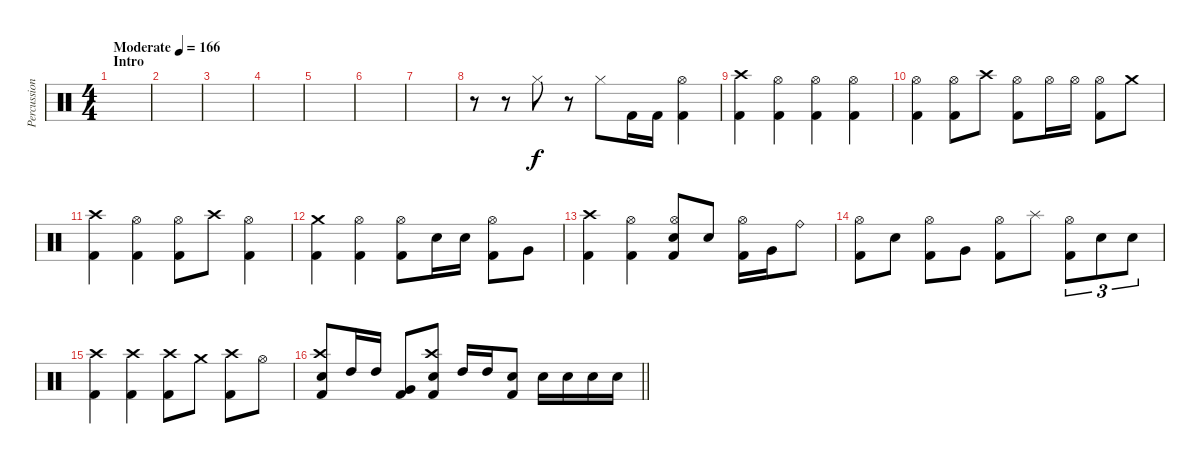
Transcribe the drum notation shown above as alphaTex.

\track ("Percussion" "Percussion") {instrument percussion}
\staff {score}
\articulation defaults
\ts (4 4)
\section ("" "Intro")
\tempo (166 "Moderate")
\clef neutral
\ks c
|
|
|
|
|
|
|
r.8 r.8 "Hi-Hat (closed)".8 r.8 "Hi-Hat (closed)".8 "Kick (hit) 2".16 "Kick (hit) 2".16 ("Hi-Hat (open)" "Kick (hit) 2").4 |
("Crash high (hit)" "Kick (hit) 2").4 ("Hi-Hat (open)" "Kick (hit) 2").4 ("Hi-Hat (open)" "Kick (hit) 2").4 ("Hi-Hat (open)" "Kick (hit) 2").4 |
("Hi-Hat (open)" "Kick (hit) 2").4 ("Hi-Hat (open)" "Kick (hit) 2").8 "Crash high (hit)".8 ("Hi-Hat (open)" "Kick (hit) 2").8 "Hi-Hat (open)".16 "Hi-Hat (open)".16 ("Hi-Hat (open)" "Kick (hit) 2").8 "Crash medium (hit)".8 |
("Crash high (hit)" "Kick (hit) 2").4 ("Hi-Hat (open)" "Kick (hit) 2").4 ("Hi-Hat (open)" "Kick (hit) 2").8 "Crash high (hit)".8 ("Hi-Hat (open)" "Kick (hit) 2").4 |
("Crash medium (hit)" "Kick (hit) 2").4 ("Hi-Hat (open)" "Kick (hit) 2").4 ("Hi-Hat (open)" "Kick (hit) 2").8 "Electric Snare (hit)".16 "Electric Snare (hit)".16 ("Hi-Hat (open)" "Kick (hit) 2").8 "Very Low Tom (hit)".8 |
("Crash high (hit)" "Kick (hit) 2").4 ("Hi-Hat (open)" "Kick (hit) 2").4 ("Hi-Hat (open)" "Electric Snare (hit)" "Kick (hit) 2").8 "Electric Snare (hit)".8 ("Hi-Hat (open)" "Kick (hit) 2").16 "Very Low Tom (hit)".16 "Ride (bell)".8 |
("Hi-Hat (open)" "Kick (hit) 2").8 "Electric Snare (hit)".8 ("Hi-Hat (open)" "Kick (hit) 2").8 "Very Low Tom (hit)".8 ("Hi-Hat (open)" "Kick (hit) 2").8 "Splash (hit)".8 ("Hi-Hat (open)" "Kick (hit) 2").8{tu (3 2)} "Electric Snare (hit)".8{tu (3 2)} "Electric Snare (hit)".8{tu (3 2)} |
("Crash high (hit)" "Kick (hit) 2").4 ("Crash high (hit)" "Kick (hit) 2").4 ("Crash high (hit)" "Kick (hit) 2").8 "Crash medium (hit)".8 ("Crash high (hit)" "Kick (hit) 2").8 "Hi-Hat (open)".8 |
\barLineRight lightlight
("Crash high (hit)" "Electric Snare (hit)" "Kick (hit) 2").8 "High Tom (hit)".16 "High Tom (hit)".16 ("Very Low Tom (hit)" "Kick (hit) 2").8 ("Crash high (hit)" "Electric Snare (hit)" "Kick (hit) 2").8 "High Tom (hit)".16 "High Tom (hit)".16 ("Electric Snare (hit)" "Kick (hit) 2").8 "Electric Snare (hit)".16 "Electric Snare (hit)".16 "Electric Snare (hit)".16 "Electric Snare (hit)".16
